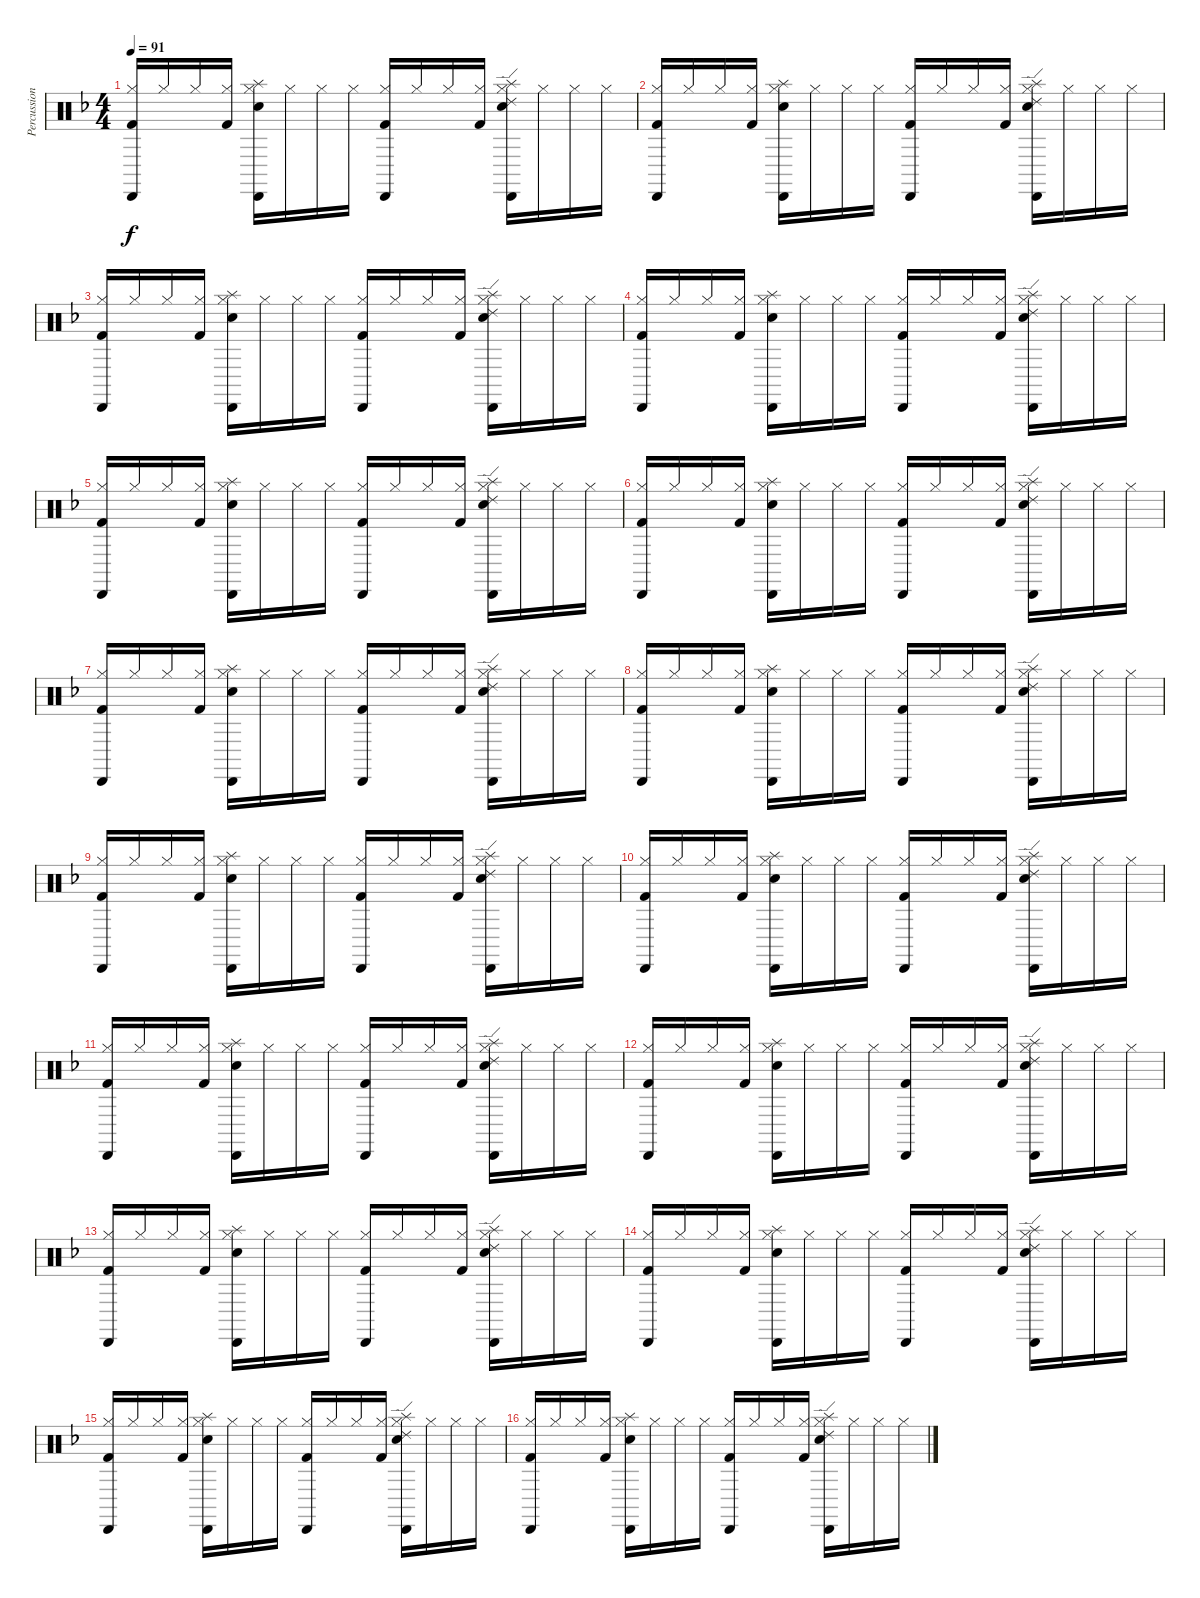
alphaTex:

\track ("Percussion" "Percussion") {instrument percussion}
\staff {score}
\articulation defaults
\ts (4 4)
\tempo 91
\clef neutral
\ks dminor
("Hi-Hat (closed)" "Kick (hit) 2" "Cabasa (hit)").16{dy f volume 12} "Hi-Hat (closed)".16 "Hi-Hat (closed)".16 ("Hi-Hat (closed)" "Kick (hit) 2").16 ("Hi-Hat (closed)" "Snare (hit) 2" "Cabasa (hit)" "Splash (hit)").16 "Hi-Hat (closed)".16 "Hi-Hat (closed)".16 "Hi-Hat (closed)".16 ("Hi-Hat (closed)" "Kick (hit) 2" "Cabasa (hit)").16 "Hi-Hat (closed)".16 "Hi-Hat (closed)".16 ("Hi-Hat (closed)" "Kick (hit) 2").16 ("Hi-Hat (closed)" "Snare (hit) 2" "Cabasa (hit)" "Ride (edge) 2" "Splash (hit)").16 "Hi-Hat (closed)".16 "Hi-Hat (closed)".16 "Hi-Hat (closed)".16 |
("Hi-Hat (closed)" "Kick (hit) 2" "Cabasa (hit)").16{volume 12} "Hi-Hat (closed)".16 "Hi-Hat (closed)".16 ("Hi-Hat (closed)" "Kick (hit) 2").16 ("Hi-Hat (closed)" "Snare (hit) 2" "Cabasa (hit)" "Splash (hit)").16 "Hi-Hat (closed)".16 "Hi-Hat (closed)".16 "Hi-Hat (closed)".16 ("Hi-Hat (closed)" "Kick (hit) 2" "Cabasa (hit)").16 "Hi-Hat (closed)".16 "Hi-Hat (closed)".16 ("Hi-Hat (closed)" "Kick (hit) 2").16 ("Hi-Hat (closed)" "Snare (hit) 2" "Cabasa (hit)" "Ride (edge) 2" "Splash (hit)").16 "Hi-Hat (closed)".16 "Hi-Hat (closed)".16 "Hi-Hat (closed)".16 |
("Hi-Hat (closed)" "Kick (hit) 2" "Cabasa (hit)").16{volume 12} "Hi-Hat (closed)".16 "Hi-Hat (closed)".16 ("Hi-Hat (closed)" "Kick (hit) 2").16 ("Hi-Hat (closed)" "Snare (hit) 2" "Cabasa (hit)" "Splash (hit)").16 "Hi-Hat (closed)".16 "Hi-Hat (closed)".16 "Hi-Hat (closed)".16 ("Hi-Hat (closed)" "Kick (hit) 2" "Cabasa (hit)").16 "Hi-Hat (closed)".16 "Hi-Hat (closed)".16 ("Hi-Hat (closed)" "Kick (hit) 2").16 ("Hi-Hat (closed)" "Snare (hit) 2" "Cabasa (hit)" "Ride (edge) 2" "Splash (hit)").16 "Hi-Hat (closed)".16 "Hi-Hat (closed)".16 "Hi-Hat (closed)".16 |
("Hi-Hat (closed)" "Kick (hit) 2" "Cabasa (hit)").16{volume 12} "Hi-Hat (closed)".16 "Hi-Hat (closed)".16 ("Hi-Hat (closed)" "Kick (hit) 2").16 ("Hi-Hat (closed)" "Snare (hit) 2" "Cabasa (hit)" "Splash (hit)").16 "Hi-Hat (closed)".16 "Hi-Hat (closed)".16 "Hi-Hat (closed)".16 ("Hi-Hat (closed)" "Kick (hit) 2" "Cabasa (hit)").16 "Hi-Hat (closed)".16 "Hi-Hat (closed)".16 ("Hi-Hat (closed)" "Kick (hit) 2").16 ("Hi-Hat (closed)" "Snare (hit) 2" "Cabasa (hit)" "Ride (edge) 2" "Splash (hit)").16 "Hi-Hat (closed)".16 "Hi-Hat (closed)".16 "Hi-Hat (closed)".16 |
("Hi-Hat (closed)" "Kick (hit) 2" "Cabasa (hit)").16{volume 12} "Hi-Hat (closed)".16 "Hi-Hat (closed)".16 ("Hi-Hat (closed)" "Kick (hit) 2").16 ("Hi-Hat (closed)" "Snare (hit) 2" "Cabasa (hit)" "Splash (hit)").16 "Hi-Hat (closed)".16 "Hi-Hat (closed)".16 "Hi-Hat (closed)".16 ("Hi-Hat (closed)" "Kick (hit) 2" "Cabasa (hit)").16 "Hi-Hat (closed)".16 "Hi-Hat (closed)".16 ("Hi-Hat (closed)" "Kick (hit) 2").16 ("Hi-Hat (closed)" "Snare (hit) 2" "Cabasa (hit)" "Ride (edge) 2" "Splash (hit)").16 "Hi-Hat (closed)".16 "Hi-Hat (closed)".16 "Hi-Hat (closed)".16 |
("Hi-Hat (closed)" "Kick (hit) 2" "Cabasa (hit)").16{volume 12} "Hi-Hat (closed)".16 "Hi-Hat (closed)".16 ("Hi-Hat (closed)" "Kick (hit) 2").16 ("Hi-Hat (closed)" "Snare (hit) 2" "Cabasa (hit)" "Splash (hit)").16 "Hi-Hat (closed)".16 "Hi-Hat (closed)".16 "Hi-Hat (closed)".16 ("Hi-Hat (closed)" "Kick (hit) 2" "Cabasa (hit)").16 "Hi-Hat (closed)".16 "Hi-Hat (closed)".16 ("Hi-Hat (closed)" "Kick (hit) 2").16 ("Hi-Hat (closed)" "Snare (hit) 2" "Cabasa (hit)" "Ride (edge) 2" "Splash (hit)").16 "Hi-Hat (closed)".16 "Hi-Hat (closed)".16 "Hi-Hat (closed)".16 |
("Hi-Hat (closed)" "Kick (hit) 2" "Cabasa (hit)").16 "Hi-Hat (closed)".16 "Hi-Hat (closed)".16 ("Hi-Hat (closed)" "Kick (hit) 2").16 ("Hi-Hat (closed)" "Snare (hit) 2" "Cabasa (hit)" "Splash (hit)").16 "Hi-Hat (closed)".16 "Hi-Hat (closed)".16 "Hi-Hat (closed)".16 ("Hi-Hat (closed)" "Kick (hit) 2" "Cabasa (hit)").16 "Hi-Hat (closed)".16 "Hi-Hat (closed)".16 ("Hi-Hat (closed)" "Kick (hit) 2").16 ("Hi-Hat (closed)" "Snare (hit) 2" "Cabasa (hit)" "Ride (edge) 2" "Splash (hit)").16 "Hi-Hat (closed)".16 "Hi-Hat (closed)".16 "Hi-Hat (closed)".16 |
("Hi-Hat (closed)" "Kick (hit) 2" "Cabasa (hit)").16 "Hi-Hat (closed)".16 "Hi-Hat (closed)".16 ("Hi-Hat (closed)" "Kick (hit) 2").16 ("Hi-Hat (closed)" "Snare (hit) 2" "Cabasa (hit)" "Splash (hit)").16 "Hi-Hat (closed)".16 "Hi-Hat (closed)".16 "Hi-Hat (closed)".16 ("Hi-Hat (closed)" "Kick (hit) 2" "Cabasa (hit)").16 "Hi-Hat (closed)".16 "Hi-Hat (closed)".16 ("Hi-Hat (closed)" "Kick (hit) 2").16 ("Hi-Hat (closed)" "Snare (hit) 2" "Cabasa (hit)" "Ride (edge) 2" "Splash (hit)").16 "Hi-Hat (closed)".16 "Hi-Hat (closed)".16 "Hi-Hat (closed)".16 |
("Hi-Hat (closed)" "Kick (hit) 2" "Cabasa (hit)").16 "Hi-Hat (closed)".16 "Hi-Hat (closed)".16 ("Hi-Hat (closed)" "Kick (hit) 2").16 ("Hi-Hat (closed)" "Snare (hit) 2" "Cabasa (hit)" "Splash (hit)").16 "Hi-Hat (closed)".16 "Hi-Hat (closed)".16 "Hi-Hat (closed)".16 ("Hi-Hat (closed)" "Kick (hit) 2" "Cabasa (hit)").16 "Hi-Hat (closed)".16 "Hi-Hat (closed)".16 ("Hi-Hat (closed)" "Kick (hit) 2").16 ("Hi-Hat (closed)" "Snare (hit) 2" "Cabasa (hit)" "Ride (edge) 2" "Splash (hit)").16 "Hi-Hat (closed)".16 "Hi-Hat (closed)".16 "Hi-Hat (closed)".16 |
("Hi-Hat (closed)" "Kick (hit) 2" "Cabasa (hit)").16 "Hi-Hat (closed)".16 "Hi-Hat (closed)".16 ("Hi-Hat (closed)" "Kick (hit) 2").16 ("Hi-Hat (closed)" "Snare (hit) 2" "Cabasa (hit)" "Splash (hit)").16 "Hi-Hat (closed)".16 "Hi-Hat (closed)".16 "Hi-Hat (closed)".16 ("Hi-Hat (closed)" "Kick (hit) 2" "Cabasa (hit)").16 "Hi-Hat (closed)".16 "Hi-Hat (closed)".16 ("Hi-Hat (closed)" "Kick (hit) 2").16 ("Hi-Hat (closed)" "Snare (hit) 2" "Cabasa (hit)" "Ride (edge) 2" "Splash (hit)").16 "Hi-Hat (closed)".16 "Hi-Hat (closed)".16 "Hi-Hat (closed)".16 |
("Hi-Hat (closed)" "Kick (hit) 2" "Cabasa (hit)").16 "Hi-Hat (closed)".16 "Hi-Hat (closed)".16 ("Hi-Hat (closed)" "Kick (hit) 2").16 ("Hi-Hat (closed)" "Snare (hit) 2" "Cabasa (hit)" "Splash (hit)").16 "Hi-Hat (closed)".16 "Hi-Hat (closed)".16 "Hi-Hat (closed)".16 ("Hi-Hat (closed)" "Kick (hit) 2" "Cabasa (hit)").16 "Hi-Hat (closed)".16 "Hi-Hat (closed)".16 ("Hi-Hat (closed)" "Kick (hit) 2").16 ("Hi-Hat (closed)" "Snare (hit) 2" "Cabasa (hit)" "Ride (edge) 2" "Splash (hit)").16 "Hi-Hat (closed)".16 "Hi-Hat (closed)".16 "Hi-Hat (closed)".16 |
("Hi-Hat (closed)" "Kick (hit) 2" "Cabasa (hit)").16 "Hi-Hat (closed)".16 "Hi-Hat (closed)".16 ("Hi-Hat (closed)" "Kick (hit) 2").16 ("Hi-Hat (closed)" "Snare (hit) 2" "Cabasa (hit)" "Splash (hit)").16 "Hi-Hat (closed)".16 "Hi-Hat (closed)".16 "Hi-Hat (closed)".16 ("Hi-Hat (closed)" "Kick (hit) 2" "Cabasa (hit)").16 "Hi-Hat (closed)".16 "Hi-Hat (closed)".16 ("Hi-Hat (closed)" "Kick (hit) 2").16 ("Hi-Hat (closed)" "Snare (hit) 2" "Cabasa (hit)" "Ride (edge) 2" "Splash (hit)").16 "Hi-Hat (closed)".16 "Hi-Hat (closed)".16 "Hi-Hat (closed)".16 |
("Hi-Hat (closed)" "Kick (hit) 2" "Cabasa (hit)").16 "Hi-Hat (closed)".16 "Hi-Hat (closed)".16 ("Hi-Hat (closed)" "Kick (hit) 2").16 ("Hi-Hat (closed)" "Snare (hit) 2" "Cabasa (hit)" "Splash (hit)").16 "Hi-Hat (closed)".16 "Hi-Hat (closed)".16 "Hi-Hat (closed)".16 ("Hi-Hat (closed)" "Kick (hit) 2" "Cabasa (hit)").16 "Hi-Hat (closed)".16 "Hi-Hat (closed)".16 ("Hi-Hat (closed)" "Kick (hit) 2").16 ("Hi-Hat (closed)" "Snare (hit) 2" "Cabasa (hit)" "Ride (edge) 2" "Splash (hit)").16 "Hi-Hat (closed)".16 "Hi-Hat (closed)".16 "Hi-Hat (closed)".16 |
("Hi-Hat (closed)" "Kick (hit) 2" "Cabasa (hit)").16 "Hi-Hat (closed)".16 "Hi-Hat (closed)".16 ("Hi-Hat (closed)" "Kick (hit) 2").16 ("Hi-Hat (closed)" "Snare (hit) 2" "Cabasa (hit)" "Splash (hit)").16 "Hi-Hat (closed)".16 "Hi-Hat (closed)".16 "Hi-Hat (closed)".16 ("Hi-Hat (closed)" "Kick (hit) 2" "Cabasa (hit)").16 "Hi-Hat (closed)".16 "Hi-Hat (closed)".16 ("Hi-Hat (closed)" "Kick (hit) 2").16 ("Hi-Hat (closed)" "Snare (hit) 2" "Cabasa (hit)" "Ride (edge) 2" "Splash (hit)").16 "Hi-Hat (closed)".16 "Hi-Hat (closed)".16 "Hi-Hat (closed)".16 |
("Hi-Hat (closed)" "Kick (hit) 2" "Cabasa (hit)").16 "Hi-Hat (closed)".16 "Hi-Hat (closed)".16 ("Hi-Hat (closed)" "Kick (hit) 2").16 ("Hi-Hat (closed)" "Snare (hit) 2" "Cabasa (hit)" "Splash (hit)").16 "Hi-Hat (closed)".16 "Hi-Hat (closed)".16 "Hi-Hat (closed)".16 ("Hi-Hat (closed)" "Kick (hit) 2" "Cabasa (hit)").16 "Hi-Hat (closed)".16 "Hi-Hat (closed)".16 ("Hi-Hat (closed)" "Kick (hit) 2").16 ("Hi-Hat (closed)" "Snare (hit) 2" "Cabasa (hit)" "Ride (edge) 2" "Splash (hit)").16 "Hi-Hat (closed)".16 "Hi-Hat (closed)".16 "Hi-Hat (closed)".16 |
("Hi-Hat (closed)" "Kick (hit) 2" "Cabasa (hit)").16 "Hi-Hat (closed)".16 "Hi-Hat (closed)".16 ("Hi-Hat (closed)" "Kick (hit) 2").16 ("Hi-Hat (closed)" "Snare (hit) 2" "Cabasa (hit)" "Splash (hit)").16 "Hi-Hat (closed)".16 "Hi-Hat (closed)".16 "Hi-Hat (closed)".16 ("Hi-Hat (closed)" "Kick (hit) 2" "Cabasa (hit)").16 "Hi-Hat (closed)".16 "Hi-Hat (closed)".16 ("Hi-Hat (closed)" "Kick (hit) 2").16 ("Hi-Hat (closed)" "Snare (hit) 2" "Cabasa (hit)" "Ride (edge) 2" "Splash (hit)").16 "Hi-Hat (closed)".16 "Hi-Hat (closed)".16 "Hi-Hat (closed)".16
